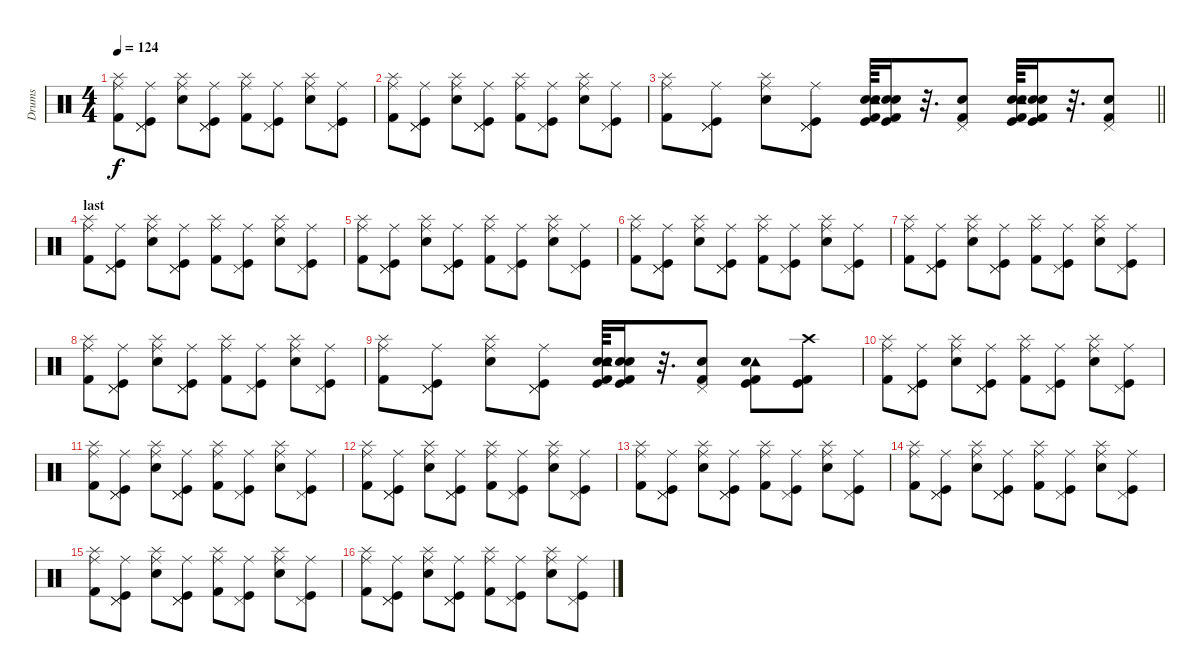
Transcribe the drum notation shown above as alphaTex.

\track ("Drums " "Drums ") {instrument percussion}
\staff {score}
\articulation defaults
\ts (4 4)
\tempo 124
\clef neutral
\ks c
("Splash (hit)" "Ride (middle)" "Kick (hit) 2").8{dy f} ("Pedal Hi-Hat (hit)" "Ride (middle)" "Kick (hit)" "Pedal Hi-Hat (hit)").8 ("Splash (hit)" "Ride (middle)" "Electric Snare (hit)").8 ("Pedal Hi-Hat (hit)" "Ride (middle)" "Kick (hit)" "Pedal Hi-Hat (hit)").8 ("Splash (hit)" "Ride (middle)" "Kick (hit) 2").8 ("Pedal Hi-Hat (hit)" "Ride (middle)" "Kick (hit)").8 ("Splash (hit)" "Ride (middle)" "Electric Snare (hit)").8 ("Pedal Hi-Hat (hit)" "Ride (middle)" "Kick (hit)").8 |
("Splash (hit)" "Ride (middle)" "Kick (hit) 2").8 ("Pedal Hi-Hat (hit)" "Ride (middle)" "Kick (hit)" "Pedal Hi-Hat (hit)").8 ("Splash (hit)" "Ride (middle)" "Electric Snare (hit)").8 ("Pedal Hi-Hat (hit)" "Ride (middle)" "Kick (hit)" "Pedal Hi-Hat (hit)").8 ("Splash (hit)" "Ride (middle)" "Kick (hit) 2").8 ("Pedal Hi-Hat (hit)" "Ride (middle)" "Kick (hit)").8 ("Splash (hit)" "Ride (middle)" "Electric Snare (hit)").8 ("Pedal Hi-Hat (hit)" "Ride (middle)" "Kick (hit)").8 |
\barLineRight lightlight
("Splash (hit)" "Ride (middle)" "Kick (hit) 2").8 ("Pedal Hi-Hat (hit)" "Ride (middle)" "Kick (hit)" "Pedal Hi-Hat (hit)").8 ("Splash (hit)" "Ride (middle)" "Electric Snare (hit)").8 ("Pedal Hi-Hat (hit)" "Ride (middle)" "Kick (hit)" "Pedal Hi-Hat (hit)").8 ("Kick (hit)" "Kick (hit) 2" "Electric Snare (hit)" "Tambourine (hit)" "Snare (hit) 2").64 ("Kick (hit)" "Kick (hit) 2" "Electric Snare (hit)" "Snare (hit) 2").16 r.32{d} ("Electric Snare (hit)" "Pedal Hi-Hat (hit)" "Kick (hit) 2").8 ("Kick (hit)" "Kick (hit) 2" "Electric Snare (hit)" "Tambourine (hit)" "Snare (hit) 2").64 ("Kick (hit)" "Kick (hit) 2" "Electric Snare (hit)" "Snare (hit) 2").16 r.32{d} ("Electric Snare (hit)" "Pedal Hi-Hat (hit)" "Kick (hit) 2").8 |
\section ("" "last")
("Splash (hit)" "Ride (middle)" "Kick (hit) 2").8 ("Pedal Hi-Hat (hit)" "Ride (middle)" "Kick (hit)" "Pedal Hi-Hat (hit)").8 ("Splash (hit)" "Ride (middle)" "Electric Snare (hit)").8 ("Pedal Hi-Hat (hit)" "Ride (middle)" "Kick (hit)" "Pedal Hi-Hat (hit)").8 ("Splash (hit)" "Ride (middle)" "Kick (hit) 2").8 ("Pedal Hi-Hat (hit)" "Ride (middle)" "Kick (hit)").8 ("Splash (hit)" "Ride (middle)" "Electric Snare (hit)").8 ("Pedal Hi-Hat (hit)" "Ride (middle)" "Kick (hit)").8 |
("Splash (hit)" "Ride (middle)" "Kick (hit) 2").8 ("Pedal Hi-Hat (hit)" "Ride (middle)" "Kick (hit)" "Pedal Hi-Hat (hit)").8 ("Splash (hit)" "Ride (middle)" "Electric Snare (hit)").8 ("Pedal Hi-Hat (hit)" "Ride (middle)" "Kick (hit)" "Pedal Hi-Hat (hit)").8 ("Splash (hit)" "Ride (middle)" "Kick (hit) 2").8 ("Pedal Hi-Hat (hit)" "Ride (middle)" "Kick (hit)").8 ("Splash (hit)" "Ride (middle)" "Electric Snare (hit)").8 ("Pedal Hi-Hat (hit)" "Ride (middle)" "Kick (hit)").8 |
("Splash (hit)" "Ride (middle)" "Kick (hit) 2").8 ("Pedal Hi-Hat (hit)" "Ride (middle)" "Kick (hit)" "Pedal Hi-Hat (hit)").8 ("Splash (hit)" "Ride (middle)" "Electric Snare (hit)").8 ("Pedal Hi-Hat (hit)" "Ride (middle)" "Kick (hit)" "Pedal Hi-Hat (hit)").8 ("Splash (hit)" "Ride (middle)" "Kick (hit) 2").8 ("Pedal Hi-Hat (hit)" "Ride (middle)" "Kick (hit)").8 ("Splash (hit)" "Ride (middle)" "Electric Snare (hit)").8 ("Pedal Hi-Hat (hit)" "Ride (middle)" "Kick (hit)").8 |
("Splash (hit)" "Ride (middle)" "Kick (hit) 2").8 ("Pedal Hi-Hat (hit)" "Ride (middle)" "Kick (hit)" "Pedal Hi-Hat (hit)").8 ("Splash (hit)" "Ride (middle)" "Electric Snare (hit)").8 ("Pedal Hi-Hat (hit)" "Ride (middle)" "Kick (hit)" "Pedal Hi-Hat (hit)").8 ("Splash (hit)" "Ride (middle)" "Kick (hit) 2").8 ("Pedal Hi-Hat (hit)" "Ride (middle)" "Kick (hit)").8 ("Splash (hit)" "Ride (middle)" "Electric Snare (hit)").8 ("Pedal Hi-Hat (hit)" "Ride (middle)" "Kick (hit)").8 |
("Splash (hit)" "Ride (middle)" "Kick (hit) 2").8 ("Pedal Hi-Hat (hit)" "Ride (middle)" "Kick (hit)" "Pedal Hi-Hat (hit)").8 ("Splash (hit)" "Ride (middle)" "Electric Snare (hit)").8 ("Pedal Hi-Hat (hit)" "Ride (middle)" "Kick (hit)" "Pedal Hi-Hat (hit)").8 ("Splash (hit)" "Ride (middle)" "Kick (hit) 2").8 ("Pedal Hi-Hat (hit)" "Ride (middle)" "Kick (hit)").8 ("Splash (hit)" "Ride (middle)" "Electric Snare (hit)").8 ("Pedal Hi-Hat (hit)" "Ride (middle)" "Kick (hit)").8 |
("Splash (hit)" "Ride (middle)" "Kick (hit) 2").8 ("Pedal Hi-Hat (hit)" "Ride (middle)" "Kick (hit)" "Pedal Hi-Hat (hit)").8 ("Splash (hit)" "Ride (middle)" "Electric Snare (hit)").8 ("Pedal Hi-Hat (hit)" "Ride (middle)" "Kick (hit)" "Pedal Hi-Hat (hit)").8 ("Kick (hit)" "Kick (hit) 2" "Electric Snare (hit)" "Tambourine (hit)" "Snare (hit) 2").64 ("Kick (hit)" "Kick (hit) 2" "Electric Snare (hit)" "Snare (hit) 2").16 r.32{d} ("Electric Snare (hit)" "Pedal Hi-Hat (hit)" "Kick (hit) 2").8 ("Kick (hit)" "Kick (hit) 2" "Tambourine (hit)" "Snare (hit) 2").8 ("Kick (hit)" "Kick (hit) 2" "Crash high (hit)").8 |
("Splash (hit)" "Ride (middle)" "Kick (hit) 2").8 ("Pedal Hi-Hat (hit)" "Ride (middle)" "Kick (hit)" "Pedal Hi-Hat (hit)").8 ("Splash (hit)" "Ride (middle)" "Electric Snare (hit)").8 ("Pedal Hi-Hat (hit)" "Ride (middle)" "Kick (hit)" "Pedal Hi-Hat (hit)").8 ("Splash (hit)" "Ride (middle)" "Kick (hit) 2").8 ("Pedal Hi-Hat (hit)" "Ride (middle)" "Kick (hit)").8 ("Splash (hit)" "Ride (middle)" "Electric Snare (hit)").8 ("Pedal Hi-Hat (hit)" "Ride (middle)" "Kick (hit)").8 |
("Splash (hit)" "Ride (middle)" "Kick (hit) 2").8 ("Pedal Hi-Hat (hit)" "Ride (middle)" "Kick (hit)" "Pedal Hi-Hat (hit)").8 ("Splash (hit)" "Ride (middle)" "Electric Snare (hit)").8 ("Pedal Hi-Hat (hit)" "Ride (middle)" "Kick (hit)" "Pedal Hi-Hat (hit)").8 ("Splash (hit)" "Ride (middle)" "Kick (hit) 2").8 ("Pedal Hi-Hat (hit)" "Ride (middle)" "Kick (hit)").8 ("Splash (hit)" "Ride (middle)" "Electric Snare (hit)").8 ("Pedal Hi-Hat (hit)" "Ride (middle)" "Kick (hit)").8 |
("Splash (hit)" "Ride (middle)" "Kick (hit) 2").8 ("Pedal Hi-Hat (hit)" "Ride (middle)" "Kick (hit)" "Pedal Hi-Hat (hit)").8 ("Splash (hit)" "Ride (middle)" "Electric Snare (hit)").8 ("Pedal Hi-Hat (hit)" "Ride (middle)" "Kick (hit)" "Pedal Hi-Hat (hit)").8 ("Splash (hit)" "Ride (middle)" "Kick (hit) 2").8 ("Pedal Hi-Hat (hit)" "Ride (middle)" "Kick (hit)").8 ("Splash (hit)" "Ride (middle)" "Electric Snare (hit)").8 ("Pedal Hi-Hat (hit)" "Ride (middle)" "Kick (hit)").8 |
("Splash (hit)" "Ride (middle)" "Kick (hit) 2").8 ("Pedal Hi-Hat (hit)" "Ride (middle)" "Kick (hit)" "Pedal Hi-Hat (hit)").8 ("Splash (hit)" "Ride (middle)" "Electric Snare (hit)").8 ("Pedal Hi-Hat (hit)" "Ride (middle)" "Kick (hit)" "Pedal Hi-Hat (hit)").8 ("Splash (hit)" "Ride (middle)" "Kick (hit) 2").8 ("Pedal Hi-Hat (hit)" "Ride (middle)" "Kick (hit)").8 ("Splash (hit)" "Ride (middle)" "Electric Snare (hit)").8 ("Pedal Hi-Hat (hit)" "Ride (middle)" "Kick (hit)").8 |
("Splash (hit)" "Ride (middle)" "Kick (hit) 2").8 ("Pedal Hi-Hat (hit)" "Ride (middle)" "Kick (hit)" "Pedal Hi-Hat (hit)").8 ("Splash (hit)" "Ride (middle)" "Electric Snare (hit)").8 ("Pedal Hi-Hat (hit)" "Ride (middle)" "Kick (hit)" "Pedal Hi-Hat (hit)").8 ("Splash (hit)" "Ride (middle)" "Kick (hit) 2").8 ("Pedal Hi-Hat (hit)" "Ride (middle)" "Kick (hit)").8 ("Splash (hit)" "Ride (middle)" "Electric Snare (hit)").8 ("Pedal Hi-Hat (hit)" "Ride (middle)" "Kick (hit)").8 |
("Splash (hit)" "Ride (middle)" "Kick (hit) 2").8 ("Pedal Hi-Hat (hit)" "Ride (middle)" "Kick (hit)" "Pedal Hi-Hat (hit)").8 ("Splash (hit)" "Ride (middle)" "Electric Snare (hit)").8 ("Pedal Hi-Hat (hit)" "Ride (middle)" "Kick (hit)" "Pedal Hi-Hat (hit)").8 ("Splash (hit)" "Ride (middle)" "Kick (hit) 2").8 ("Pedal Hi-Hat (hit)" "Ride (middle)" "Kick (hit)").8 ("Splash (hit)" "Ride (middle)" "Electric Snare (hit)").8 ("Pedal Hi-Hat (hit)" "Ride (middle)" "Kick (hit)").8 |
("Splash (hit)" "Ride (middle)" "Kick (hit) 2").8 ("Pedal Hi-Hat (hit)" "Ride (middle)" "Kick (hit)" "Pedal Hi-Hat (hit)").8 ("Splash (hit)" "Ride (middle)" "Electric Snare (hit)").8 ("Pedal Hi-Hat (hit)" "Ride (middle)" "Kick (hit)" "Pedal Hi-Hat (hit)").8 ("Splash (hit)" "Ride (middle)" "Kick (hit) 2").8 ("Pedal Hi-Hat (hit)" "Ride (middle)" "Kick (hit)").8 ("Splash (hit)" "Ride (middle)" "Electric Snare (hit)").8 ("Pedal Hi-Hat (hit)" "Ride (middle)" "Kick (hit)").8
